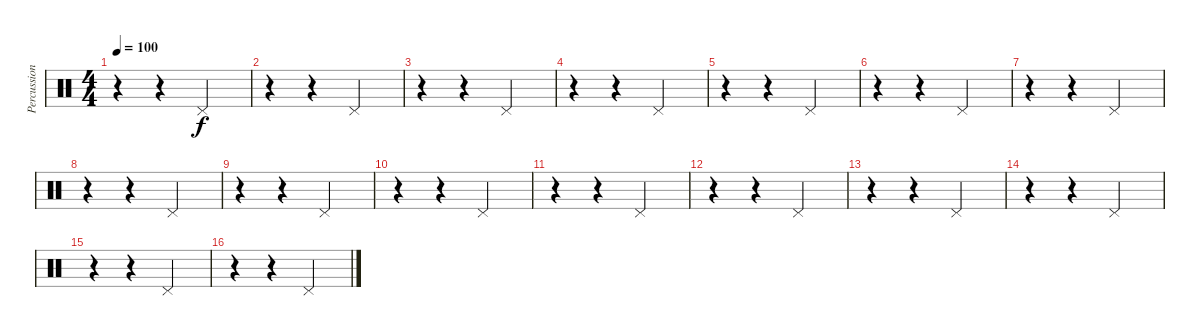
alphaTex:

\track ("Percussion" "Percussion") {instrument percussion}
\staff {score}
\articulation defaults
\ts (4 4)
\tempo 100
\clef neutral
\ks c
r.4{dy f} r.4 "Pedal Hi-Hat (hit)".2 |
r.4 r.4 "Pedal Hi-Hat (hit)".2 |
r.4 r.4 "Pedal Hi-Hat (hit)".2 |
r.4 r.4 "Pedal Hi-Hat (hit)".2 |
r.4 r.4 "Pedal Hi-Hat (hit)".2 |
r.4 r.4 "Pedal Hi-Hat (hit)".2 |
r.4 r.4 "Pedal Hi-Hat (hit)".2 |
r.4 r.4 "Pedal Hi-Hat (hit)".2 |
r.4 r.4 "Pedal Hi-Hat (hit)".2 |
r.4 r.4 "Pedal Hi-Hat (hit)".2 |
r.4 r.4 "Pedal Hi-Hat (hit)".2 |
r.4 r.4 "Pedal Hi-Hat (hit)".2 |
r.4 r.4 "Pedal Hi-Hat (hit)".2 |
r.4 r.4 "Pedal Hi-Hat (hit)".2 |
r.4 r.4 "Pedal Hi-Hat (hit)".2 |
r.4 r.4 "Pedal Hi-Hat (hit)".2
